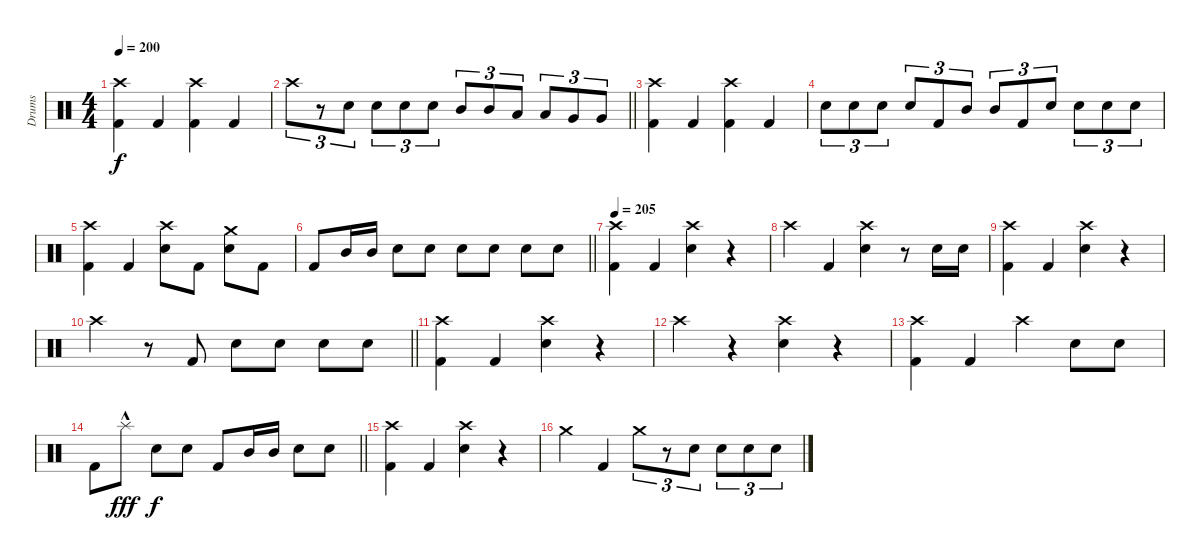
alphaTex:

\track ("Drums" "Drums") {instrument percussion}
\staff {score}
\articulation defaults
\ts (4 4)
\tempo 200
\clef neutral
\ks c
("Crash high (hit)" "Kick (hit) 2").4{dy f} "Kick (hit) 2".4 ("Crash high (hit)" "Kick (hit) 2").4 "Kick (hit) 2".4 |
\barLineRight lightlight "Crash high (hit)".8{tu (3 2)}
r.8{tu (3 2)} "Electric Snare (hit)".8{tu (3 2)} "Electric Snare (hit)".8{tu (3 2)} "Electric Snare (hit)".8{tu (3 2)} "Electric Snare (hit)".8{tu (3 2)} "Mid Tom (hit)".8{tu (3 2)} "Mid Tom (hit)".8{tu (3 2)} "Low Tom (hit)".8{tu (3 2)} "Low Tom (hit)".8{tu (3 2)} "Very Low Tom (hit)".8{tu (3 2)} "Very Low Tom (hit)".8{tu (3 2)} |
("Crash high (hit)" "Kick (hit) 2").4 "Kick (hit) 2".4 ("Crash high (hit)" "Kick (hit) 2").4 "Kick (hit) 2".4 |
"Electric Snare (hit)".8{tu (3 2)} "Electric Snare (hit)".8{tu (3 2)} "Electric Snare (hit)".8{tu (3 2)} "Electric Snare (hit)".8{tu (3 2)} "Kick (hit) 2".8{tu (3 2)} "Mid Tom (hit)".8{tu (3 2)} "Mid Tom (hit)".8{tu (3 2)} "Kick (hit) 2".8{tu (3 2)} "Electric Snare (hit)".8{tu (3 2)} "Electric Snare (hit)".8{tu (3 2)} "Electric Snare (hit)".8{tu (3 2)} "Electric Snare (hit)".8{tu (3 2)} |
("Crash high (hit)" "Kick (hit) 2").4 "Kick (hit) 2".4 ("Crash high (hit)" "Electric Snare (hit)").8 "Kick (hit) 2".8 ("Crash medium (hit)" "Electric Snare (hit)").8 "Kick (hit) 2".8 |
\barLineRight lightlight "Kick (hit) 2".8 "Mid Tom (hit)".16 "Mid Tom (hit)".16 "Electric Snare (hit)".8 "Electric Snare (hit)".8 "Electric Snare (hit)".8 "Electric Snare (hit)".8 "Electric Snare (hit)".8 "Electric Snare (hit)".8
|
\tempo 205
("Crash high (hit)" "Kick (hit) 2").4 "Kick (hit) 2".4 ("Crash high (hit)" "Electric Snare (hit)").4 r.4 |
"Crash high (hit)".4 "Kick (hit) 2".4 ("Crash high (hit)" "Electric Snare (hit)").4 r.8 "Electric Snare (hit)".16 "Electric Snare (hit)".16 |
("Crash high (hit)" "Kick (hit) 2").4 "Kick (hit) 2".4 ("Crash high (hit)" "Electric Snare (hit)").4 r.4 |
\barLineRight lightlight "Crash high (hit)".4
r.8 "Kick (hit) 2".8 "Electric Snare (hit)".8 "Electric Snare (hit)".8 "Electric Snare (hit)".8 "Electric Snare (hit)".8 |
("Crash high (hit)" "Kick (hit) 2").4 "Kick (hit) 2".4 ("Crash high (hit)" "Electric Snare (hit)").4 r.4 |
"Crash high (hit)".4 r.4 ("Crash high (hit)" "Electric Snare (hit)").4 r.4 |
("Crash high (hit)" "Kick (hit) 2").4 "Kick (hit) 2".4 "Crash high (hit)".4 "Electric Snare (hit)".8 "Electric Snare (hit)".8 |
\barLineRight lightlight "Kick (hit) 2".8 "Splash (hit)"{hac}.8{dy fff} "Electric Snare (hit)".8{dy f} "Electric Snare (hit)".8 "Kick (hit) 2".8 "Mid Tom (hit)".16 "Mid Tom (hit)".16 "Electric Snare (hit)".8 "Electric Snare (hit)".8
|
("Crash high (hit)" "Kick (hit) 2").4 "Kick (hit) 2".4 ("Crash high (hit)" "Electric Snare (hit)").4 r.4 |
"Crash medium (hit)".4 "Kick (hit) 2".4 "Crash medium (hit)".8{tu (3 2)} r.8{tu (3 2)} "Electric Snare (hit)".8{tu (3 2)} "Electric Snare (hit)".8{tu (3 2)} "Electric Snare (hit)".8{tu (3 2)} "Electric Snare (hit)".8{tu (3 2)}
